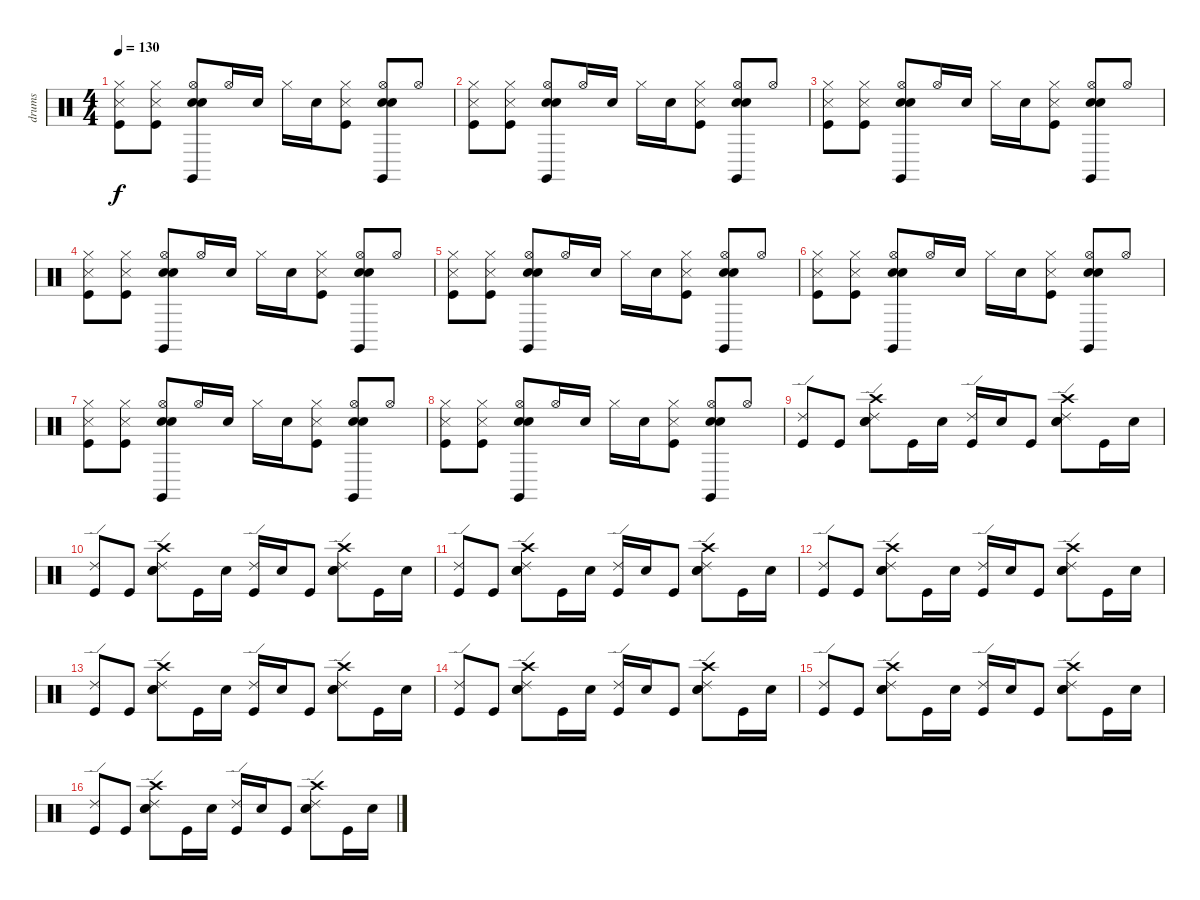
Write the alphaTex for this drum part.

\track ("drums" "drums") {instrument percussion}
\staff {score}
\articulation defaults
\ts (4 4)
\tempo 130
\clef neutral
\ks c
("Metronome (hit)" "Kick (hit)" "Hi-Hat (closed)").8{dy f} ("Hi-Hat (closed)" "Kick (hit)" "Metronome (hit)").8 ("Hi-Hat (open)" "Electric Snare (hit)" "Snare (hit) 2" "Claves (hit)").8 "Hi-Hat (open)".16 "Snare (hit) 2".16 "Hi-Hat (closed)".16 "Snare (hit) 2".16 ("Hi-Hat (closed)" "Metronome (hit)" "Kick (hit)").8 ("Hi-Hat (open)" "Snare (hit) 2" "Electric Snare (hit)" "Claves (hit)").8 "Hi-Hat (open)".8 |
("Metronome (hit)" "Kick (hit)" "Hi-Hat (closed)").8 ("Hi-Hat (closed)" "Kick (hit)" "Metronome (hit)").8 ("Hi-Hat (open)" "Electric Snare (hit)" "Snare (hit) 2" "Claves (hit)").8 "Hi-Hat (open)".16 "Snare (hit) 2".16 "Hi-Hat (closed)".16 "Snare (hit) 2".16 ("Hi-Hat (closed)" "Metronome (hit)" "Kick (hit)").8 ("Hi-Hat (open)" "Snare (hit) 2" "Electric Snare (hit)" "Claves (hit)").8 "Hi-Hat (open)".8 |
("Metronome (hit)" "Kick (hit)" "Hi-Hat (closed)").8 ("Hi-Hat (closed)" "Kick (hit)" "Metronome (hit)").8 ("Hi-Hat (open)" "Electric Snare (hit)" "Snare (hit) 2" "Claves (hit)").8 "Hi-Hat (open)".16 "Snare (hit) 2".16 "Hi-Hat (closed)".16 "Snare (hit) 2".16 ("Hi-Hat (closed)" "Metronome (hit)" "Kick (hit)").8 ("Hi-Hat (open)" "Snare (hit) 2" "Electric Snare (hit)" "Claves (hit)").8 "Hi-Hat (open)".8 |
("Metronome (hit)" "Kick (hit)" "Hi-Hat (closed)").8 ("Hi-Hat (closed)" "Kick (hit)" "Metronome (hit)").8 ("Hi-Hat (open)" "Electric Snare (hit)" "Snare (hit) 2" "Claves (hit)").8 "Hi-Hat (open)".16 "Snare (hit) 2".16 "Hi-Hat (closed)".16 "Snare (hit) 2".16 ("Hi-Hat (closed)" "Metronome (hit)" "Kick (hit)").8 ("Hi-Hat (open)" "Snare (hit) 2" "Electric Snare (hit)" "Claves (hit)").8 "Hi-Hat (open)".8 |
("Metronome (hit)" "Kick (hit)" "Hi-Hat (closed)").8 ("Hi-Hat (closed)" "Kick (hit)" "Metronome (hit)").8 ("Hi-Hat (open)" "Electric Snare (hit)" "Snare (hit) 2" "Claves (hit)").8 "Hi-Hat (open)".16 "Snare (hit) 2".16 "Hi-Hat (closed)".16 "Snare (hit) 2".16 ("Hi-Hat (closed)" "Metronome (hit)" "Kick (hit)").8 ("Hi-Hat (open)" "Snare (hit) 2" "Electric Snare (hit)" "Claves (hit)").8 "Hi-Hat (open)".8 |
("Metronome (hit)" "Kick (hit)" "Hi-Hat (closed)").8 ("Hi-Hat (closed)" "Kick (hit)" "Metronome (hit)").8 ("Hi-Hat (open)" "Electric Snare (hit)" "Snare (hit) 2" "Claves (hit)").8 "Hi-Hat (open)".16 "Snare (hit) 2".16 "Hi-Hat (closed)".16 "Snare (hit) 2".16 ("Hi-Hat (closed)" "Metronome (hit)" "Kick (hit)").8 ("Hi-Hat (open)" "Snare (hit) 2" "Electric Snare (hit)" "Claves (hit)").8 "Hi-Hat (open)".8 |
("Metronome (hit)" "Kick (hit)" "Hi-Hat (closed)").8 ("Hi-Hat (closed)" "Kick (hit)" "Metronome (hit)").8 ("Hi-Hat (open)" "Electric Snare (hit)" "Snare (hit) 2" "Claves (hit)").8 "Hi-Hat (open)".16 "Snare (hit) 2".16 "Hi-Hat (closed)".16 "Snare (hit) 2".16 ("Hi-Hat (closed)" "Metronome (hit)" "Kick (hit)").8 ("Hi-Hat (open)" "Snare (hit) 2" "Electric Snare (hit)" "Claves (hit)").8 "Hi-Hat (open)".8 |
("Metronome (hit)" "Kick (hit)" "Hi-Hat (closed)").8 ("Hi-Hat (closed)" "Kick (hit)" "Metronome (hit)").8 ("Hi-Hat (open)" "Electric Snare (hit)" "Snare (hit) 2" "Claves (hit)").8 "Hi-Hat (open)".16 "Snare (hit) 2".16 "Hi-Hat (closed)".16 "Snare (hit) 2".16 ("Hi-Hat (closed)" "Metronome (hit)" "Kick (hit)").8 ("Hi-Hat (open)" "Snare (hit) 2" "Electric Snare (hit)" "Claves (hit)").8 "Hi-Hat (open)".8 |
("Ride (edge) 2" "Kick (hit)").8 "Kick (hit)".8 ("Electric Snare (hit)" "Snare (hit) 2" "Crash high (hit)" "Ride (edge) 2").8 "Kick (hit)".16 "Snare (hit) 2".16 ("Kick (hit)" "Ride (edge) 2").16 "Snare (hit) 2".16 "Kick (hit)".8 ("Snare (hit) 2" "Electric Snare (hit)" "Crash high (hit)" "Ride (edge) 2").8 "Kick (hit)".16 "Snare (hit) 2".16 |
("Ride (edge) 2" "Kick (hit)").8 "Kick (hit)".8 ("Electric Snare (hit)" "Snare (hit) 2" "Crash high (hit)" "Ride (edge) 2").8 "Kick (hit)".16 "Snare (hit) 2".16 ("Kick (hit)" "Ride (edge) 2").16 "Snare (hit) 2".16 "Kick (hit)".8 ("Snare (hit) 2" "Electric Snare (hit)" "Crash high (hit)" "Ride (edge) 2").8 "Kick (hit)".16 "Snare (hit) 2".16 |
("Ride (edge) 2" "Kick (hit)").8 "Kick (hit)".8 ("Electric Snare (hit)" "Snare (hit) 2" "Crash high (hit)" "Ride (edge) 2").8 "Kick (hit)".16 "Snare (hit) 2".16 ("Kick (hit)" "Ride (edge) 2").16 "Snare (hit) 2".16 "Kick (hit)".8 ("Snare (hit) 2" "Electric Snare (hit)" "Crash high (hit)" "Ride (edge) 2").8 "Kick (hit)".16 "Snare (hit) 2".16 |
("Ride (edge) 2" "Kick (hit)").8 "Kick (hit)".8 ("Electric Snare (hit)" "Snare (hit) 2" "Crash high (hit)" "Ride (edge) 2").8 "Kick (hit)".16 "Snare (hit) 2".16 ("Kick (hit)" "Ride (edge) 2").16 "Snare (hit) 2".16 "Kick (hit)".8 ("Snare (hit) 2" "Electric Snare (hit)" "Crash high (hit)" "Ride (edge) 2").8 "Kick (hit)".16 "Snare (hit) 2".16 |
("Ride (edge) 2" "Kick (hit)").8 "Kick (hit)".8 ("Electric Snare (hit)" "Snare (hit) 2" "Crash high (hit)" "Ride (edge) 2").8 "Kick (hit)".16 "Snare (hit) 2".16 ("Kick (hit)" "Ride (edge) 2").16 "Snare (hit) 2".16 "Kick (hit)".8 ("Snare (hit) 2" "Electric Snare (hit)" "Crash high (hit)" "Ride (edge) 2").8 "Kick (hit)".16 "Snare (hit) 2".16 |
("Ride (edge) 2" "Kick (hit)").8 "Kick (hit)".8 ("Electric Snare (hit)" "Snare (hit) 2" "Crash high (hit)" "Ride (edge) 2").8 "Kick (hit)".16 "Snare (hit) 2".16 ("Kick (hit)" "Ride (edge) 2").16 "Snare (hit) 2".16 "Kick (hit)".8 ("Snare (hit) 2" "Electric Snare (hit)" "Crash high (hit)" "Ride (edge) 2").8 "Kick (hit)".16 "Snare (hit) 2".16 |
("Ride (edge) 2" "Kick (hit)").8 "Kick (hit)".8 ("Electric Snare (hit)" "Snare (hit) 2" "Crash high (hit)" "Ride (edge) 2").8 "Kick (hit)".16 "Snare (hit) 2".16 ("Kick (hit)" "Ride (edge) 2").16 "Snare (hit) 2".16 "Kick (hit)".8 ("Snare (hit) 2" "Electric Snare (hit)" "Crash high (hit)" "Ride (edge) 2").8 "Kick (hit)".16 "Snare (hit) 2".16 |
("Ride (edge) 2" "Kick (hit)").8 "Kick (hit)".8 ("Electric Snare (hit)" "Snare (hit) 2" "Crash high (hit)" "Ride (edge) 2").8 "Kick (hit)".16 "Snare (hit) 2".16 ("Kick (hit)" "Ride (edge) 2").16 "Snare (hit) 2".16 "Kick (hit)".8 ("Snare (hit) 2" "Electric Snare (hit)" "Crash high (hit)" "Ride (edge) 2").8 "Kick (hit)".16 "Snare (hit) 2".16
